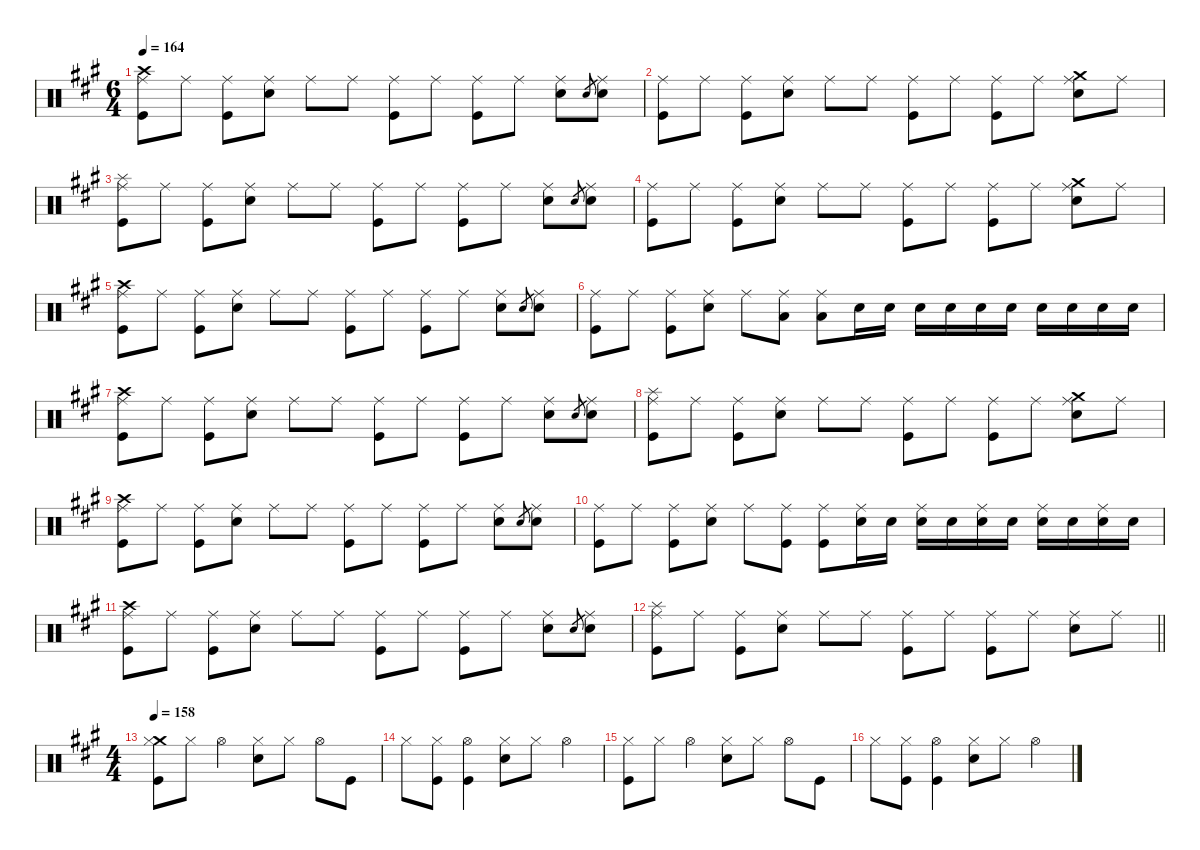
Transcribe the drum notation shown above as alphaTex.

\defaultSystemsLayout 4
\hideDynamics
\bracketExtendMode nobrackets
\singleTrackTrackNamePolicy hidden
\multiTrackTrackNamePolicy hidden
\firstSystemTrackNameMode fullname
\firstSystemTrackNameOrientation horizontal
\otherSystemsTrackNameOrientation horizontal
\track ("Drums" "drm.") {instrument percussion}
\staff {score}
\articulation defaults
\ts (6 4)
\tempo 164
\clef neutral
\ks f#minor
("Crash high (hit)"{acc forcenatural} "Ride (middle)"{acc forcenatural} "Kick (hit)"{acc forcenatural}).8{dy f beam Down} "Ride (middle)"{acc forcenatural}.8{beam Down} ("Ride (middle)"{acc forcenatural} "Kick (hit)"{acc forcenatural}).8{beam Down} ("Ride (middle)"{acc forcenatural} "Snare (hit) 2"{acc forcenatural}).8{beam Down} "Ride (middle)"{acc forcenatural}.8{beam Down} "Ride (middle)"{acc forcenatural}.8{beam Down} ("Ride (middle)"{acc forcenatural} "Kick (hit)"{acc forcenatural}).8{beam Down} "Ride (middle)"{acc forcenatural}.8{beam Down} ("Ride (middle)"{acc forcenatural} "Kick (hit)"{acc forcenatural}).8{beam Down} "Ride (middle)"{acc forcenatural}.8{beam Down} ("Ride (middle)"{acc forcenatural} "Snare (hit) 2"{acc forcenatural}).8{beam Down} "Electric Snare (hit)"{acc forcenatural}.8{gr dy pp beam Up} ("Ride (middle)"{acc forcenatural} "Snare (hit) 2"{acc forcenatural}).8{dy f beam Down} |
("Ride (middle)"{acc forcenatural} "Kick (hit)"{acc forcenatural}).8{beam Down} "Ride (middle)"{acc forcenatural}.8{beam Down} ("Ride (middle)"{acc forcenatural} "Kick (hit)"{acc forcenatural}).8{beam Down} ("Ride (middle)"{acc forcenatural} "Snare (hit) 2"{acc forcenatural}).8{beam Down} "Ride (middle)"{acc forcenatural}.8{beam Down} "Ride (middle)"{acc forcenatural}.8{beam Down} ("Ride (middle)"{acc forcenatural} "Kick (hit)"{acc forcenatural}).8{beam Down} "Ride (middle)"{acc forcenatural}.8{beam Down} ("Ride (middle)"{acc forcenatural} "Kick (hit)"{acc forcenatural}).8{beam Down} "Ride (middle)"{acc forcenatural}.8{beam Down} ("Crash medium (hit)"{acc forcenatural} "Ride (middle)"{acc forcenatural} "Snare (hit) 2"{acc forcenatural}).8{beam Down} "Ride (middle)"{acc forcenatural}.8{beam Down} |
("Splash (hit)"{acc forcenatural} "Ride (middle)"{acc forcenatural} "Kick (hit)"{acc forcenatural}).8{beam Down} "Ride (middle)"{acc forcenatural}.8{beam Down} ("Ride (middle)"{acc forcenatural} "Kick (hit)"{acc forcenatural}).8{beam Down} ("Ride (middle)"{acc forcenatural} "Snare (hit) 2"{acc forcenatural}).8{beam Down} "Ride (middle)"{acc forcenatural}.8{beam Down} "Ride (middle)"{acc forcenatural}.8{beam Down} ("Ride (middle)"{acc forcenatural} "Kick (hit)"{acc forcenatural}).8{beam Down} "Ride (middle)"{acc forcenatural}.8{beam Down} ("Ride (middle)"{acc forcenatural} "Kick (hit)"{acc forcenatural}).8{beam Down} "Ride (middle)"{acc forcenatural}.8{beam Down} ("Ride (middle)"{acc forcenatural} "Snare (hit) 2"{acc forcenatural}).8{beam Down} "Electric Snare (hit)"{acc forcenatural}.8{gr dy pp beam Up} ("Ride (middle)"{acc forcenatural} "Snare (hit) 2"{acc forcenatural}).8{dy f beam Down} |
("Ride (middle)"{acc forcenatural} "Kick (hit)"{acc forcenatural}).8{beam Down} "Ride (middle)"{acc forcenatural}.8{beam Down} ("Ride (middle)"{acc forcenatural} "Kick (hit)"{acc forcenatural}).8{beam Down} ("Ride (middle)"{acc forcenatural} "Snare (hit) 2"{acc forcenatural}).8{beam Down} "Ride (middle)"{acc forcenatural}.8{beam Down} "Ride (middle)"{acc forcenatural}.8{beam Down} ("Ride (middle)"{acc forcenatural} "Kick (hit)"{acc forcenatural}).8{beam Down} "Ride (middle)"{acc forcenatural}.8{beam Down} ("Ride (middle)"{acc forcenatural} "Kick (hit)"{acc forcenatural}).8{beam Down} "Ride (middle)"{acc forcenatural}.8{beam Down} ("Crash medium (hit)"{acc forcenatural} "Ride (middle)"{acc forcenatural} "Snare (hit) 2"{acc forcenatural}).8{beam Down} "Ride (middle)"{acc forcenatural}.8{beam Down} |
("Crash high (hit)"{acc forcenatural} "Ride (middle)"{acc forcenatural} "Kick (hit)"{acc forcenatural}).8{beam Down} "Ride (middle)"{acc forcenatural}.8{beam Down} ("Ride (middle)"{acc forcenatural} "Kick (hit)"{acc forcenatural}).8{beam Down} ("Ride (middle)"{acc forcenatural} "Snare (hit) 2"{acc forcenatural}).8{beam Down} "Ride (middle)"{acc forcenatural}.8{beam Down} "Ride (middle)"{acc forcenatural}.8{beam Down} ("Ride (middle)"{acc forcenatural} "Kick (hit)"{acc forcenatural}).8{beam Down} "Ride (middle)"{acc forcenatural}.8{beam Down} ("Ride (middle)"{acc forcenatural} "Kick (hit)"{acc forcenatural}).8{beam Down} "Ride (middle)"{acc forcenatural}.8{beam Down} ("Ride (middle)"{acc forcenatural} "Snare (hit) 2"{acc forcenatural}).8{beam Down} "Electric Snare (hit)"{acc forcenatural}.8{gr dy pp beam Up} ("Ride (middle)"{acc forcenatural} "Snare (hit) 2"{acc forcenatural}).8{dy f beam Down} |
("Ride (middle)"{acc forcenatural} "Kick (hit)"{acc forcenatural}).8{beam Down} "Ride (middle)"{acc forcenatural}.8{beam Down} ("Ride (middle)"{acc forcenatural} "Kick (hit)"{acc forcenatural}).8{beam Down} ("Ride (middle)"{acc forcenatural} "Snare (hit) 2"{acc forcenatural}).8{beam Down} "Ride (middle)"{acc forcenatural}.8{beam Down} ("Ride (middle)"{acc forcenatural} "Low Tom (hit)"{acc forcenatural}).8{beam Down} ("Ride (middle)"{acc forcenatural} "Low Tom (hit)"{acc forcenatural}).8{beam Down} "Snare (hit) 2"{acc forcenatural}.16{dy p beam Down} "Snare (hit) 2"{acc forcenatural}.16{beam Down} "Snare (hit) 2"{acc forcenatural}.16{dy mf beam Down} "Snare (hit) 2"{acc forcenatural}.16{dy p beam Down} "Snare (hit) 2"{acc forcenatural}.16{beam Down} "Snare (hit) 2"{acc forcenatural}.16{beam Down} "Snare (hit) 2"{acc forcenatural}.16{dy mf beam Down} "Snare (hit) 2"{acc forcenatural}.16{dy p beam Down} "Snare (hit) 2"{acc forcenatural}.16{beam Down} "Snare (hit) 2"{acc forcenatural}.16{beam Down} |
("Crash high (hit)"{acc forcenatural} "Ride (middle)"{acc forcenatural} "Kick (hit)"{acc forcenatural}).8{dy f beam Down} "Ride (middle)"{acc forcenatural}.8{beam Down} ("Ride (middle)"{acc forcenatural} "Kick (hit)"{acc forcenatural}).8{beam Down} ("Ride (middle)"{acc forcenatural} "Snare (hit) 2"{acc forcenatural}).8{beam Down} "Ride (middle)"{acc forcenatural}.8{beam Down} "Ride (middle)"{acc forcenatural}.8{beam Down} ("Ride (middle)"{acc forcenatural} "Kick (hit)"{acc forcenatural}).8{beam Down} "Ride (middle)"{acc forcenatural}.8{beam Down} ("Ride (middle)"{acc forcenatural} "Kick (hit)"{acc forcenatural}).8{beam Down} "Ride (middle)"{acc forcenatural}.8{beam Down} ("Ride (middle)"{acc forcenatural} "Snare (hit) 2"{acc forcenatural}).8{beam Down} "Electric Snare (hit)"{acc forcenatural}.8{gr dy pp beam Up} ("Ride (middle)"{acc forcenatural} "Snare (hit) 2"{acc forcenatural}).8{dy f beam Down} |
("Splash (hit)"{acc forcenatural} "Ride (middle)"{acc forcenatural} "Kick (hit)"{acc forcenatural}).8{beam Down} "Ride (middle)"{acc forcenatural}.8{beam Down} ("Ride (middle)"{acc forcenatural} "Kick (hit)"{acc forcenatural}).8{beam Down} ("Ride (middle)"{acc forcenatural} "Snare (hit) 2"{acc forcenatural}).8{beam Down} "Ride (middle)"{acc forcenatural}.8{beam Down} "Ride (middle)"{acc forcenatural}.8{beam Down} ("Ride (middle)"{acc forcenatural} "Kick (hit)"{acc forcenatural}).8{beam Down} "Ride (middle)"{acc forcenatural}.8{beam Down} ("Ride (middle)"{acc forcenatural} "Kick (hit)"{acc forcenatural}).8{beam Down} "Ride (middle)"{acc forcenatural}.8{beam Down} ("Crash medium (hit)"{acc forcenatural} "Ride (middle)"{acc forcenatural} "Snare (hit) 2"{acc forcenatural}).8{beam Down} "Ride (middle)"{acc forcenatural}.8{beam Down} |
("Crash high (hit)"{acc forcenatural} "Ride (middle)"{acc forcenatural} "Kick (hit)"{acc forcenatural}).8{beam Down} "Ride (middle)"{acc forcenatural}.8{beam Down} ("Ride (middle)"{acc forcenatural} "Kick (hit)"{acc forcenatural}).8{beam Down} ("Ride (middle)"{acc forcenatural} "Snare (hit) 2"{acc forcenatural}).8{beam Down} "Ride (middle)"{acc forcenatural}.8{beam Down} "Ride (middle)"{acc forcenatural}.8{beam Down} ("Ride (middle)"{acc forcenatural} "Kick (hit)"{acc forcenatural}).8{beam Down} "Ride (middle)"{acc forcenatural}.8{beam Down} ("Ride (middle)"{acc forcenatural} "Kick (hit)"{acc forcenatural}).8{beam Down} "Ride (middle)"{acc forcenatural}.8{beam Down} ("Ride (middle)"{acc forcenatural} "Snare (hit) 2"{acc forcenatural}).8{beam Down} "Electric Snare (hit)"{acc forcenatural}.8{gr dy pp beam Up} ("Ride (middle)"{acc forcenatural} "Snare (hit) 2"{acc forcenatural}).8{dy f beam Down} |
("Ride (middle)"{acc forcenatural} "Kick (hit)"{acc forcenatural}).8{beam Down} "Ride (middle)"{acc forcenatural}.8{beam Down} ("Ride (middle)"{acc forcenatural} "Kick (hit)"{acc forcenatural}).8{beam Down} ("Ride (middle)"{acc forcenatural} "Snare (hit) 2"{acc forcenatural}).8{beam Down} "Ride (middle)"{acc forcenatural}.8{beam Down} ("Ride (middle)"{acc forcenatural} "Kick (hit)"{acc forcenatural}).8{beam Down} ("Ride (middle)"{acc forcenatural} "Kick (hit)"{acc forcenatural}).8{beam Down} ("Ride (middle)"{acc forcenatural} "Snare (hit) 2"{acc forcenatural}).16{beam Down} "Snare (hit) 2"{acc forcenatural}.16{dy p beam Down} ("Ride (middle)"{acc forcenatural} "Snare (hit) 2"{acc forcenatural}).16{dy f beam Down} "Snare (hit) 2"{acc forcenatural}.16{dy p beam Down} ("Ride (middle)"{acc forcenatural} "Snare (hit) 2"{acc forcenatural}).16{dy f beam Down} "Snare (hit) 2"{acc forcenatural}.16{dy p beam Down} ("Ride (middle)"{acc forcenatural} "Snare (hit) 2"{acc forcenatural}).16{dy f beam Down} "Snare (hit) 2"{acc forcenatural}.16{dy p beam Down} ("Ride (middle)"{acc forcenatural} "Snare (hit) 2"{acc forcenatural}).16{dy f beam Down} "Snare (hit) 2"{acc forcenatural}.16{dy p beam Down} |
("Crash high (hit)"{acc forcenatural} "Ride (middle)"{acc forcenatural} "Kick (hit)"{acc forcenatural}).8{dy f beam Down} "Ride (middle)"{acc forcenatural}.8{beam Down} ("Ride (middle)"{acc forcenatural} "Kick (hit)"{acc forcenatural}).8{beam Down} ("Ride (middle)"{acc forcenatural} "Snare (hit) 2"{acc forcenatural}).8{beam Down} "Ride (middle)"{acc forcenatural}.8{beam Down} "Ride (middle)"{acc forcenatural}.8{beam Down} ("Ride (middle)"{acc forcenatural} "Kick (hit)"{acc forcenatural}).8{beam Down} "Ride (middle)"{acc forcenatural}.8{beam Down} ("Ride (middle)"{acc forcenatural} "Kick (hit)"{acc forcenatural}).8{beam Down} "Ride (middle)"{acc forcenatural}.8{beam Down} ("Ride (middle)"{acc forcenatural} "Snare (hit) 2"{acc forcenatural}).8{beam Down} "Electric Snare (hit)"{acc forcenatural}.8{gr dy pp beam Up} ("Ride (middle)"{acc forcenatural} "Snare (hit) 2"{acc forcenatural}).8{dy f beam Down} |
\barLineRight lightlight
("Splash (hit)"{acc forcenatural} "Ride (middle)"{acc forcenatural} "Kick (hit)"{acc forcenatural}).8{beam Down} "Ride (middle)"{acc forcenatural}.8{beam Down} ("Ride (middle)"{acc forcenatural} "Kick (hit)"{acc forcenatural}).8{beam Down} ("Ride (middle)"{acc forcenatural} "Snare (hit) 2"{acc forcenatural}).8{beam Down} "Ride (middle)"{acc forcenatural}.8{beam Down} "Ride (middle)"{acc forcenatural}.8{beam Down} ("Ride (middle)"{acc forcenatural} "Kick (hit)"{acc forcenatural}).8{beam Down} "Ride (middle)"{acc forcenatural}.8{beam Down} ("Ride (middle)"{acc forcenatural} "Kick (hit)"{acc forcenatural}).8{beam Down} "Ride (middle)"{acc forcenatural}.8{beam Down} ("Ride (middle)"{acc forcenatural} "Snare (hit) 2"{acc forcenatural}).8{beam Down} "Ride (middle)"{acc forcenatural}.8{beam Down} |
\ts (4 4)
\beaming (8 2 2 2 2)
\tempo 158
("Crash medium (hit)"{acc forcenatural} "Hi-Hat (closed)"{acc forcenatural} "Kick (hit)"{acc forcenatural}).8{beam Down} "Hi-Hat (closed)"{acc forcenatural}.8{dy mf beam Down} "Hi-Hat (open)"{acc forcenatural}.4{dy f beam Down} ("Hi-Hat (closed)"{acc forcenatural} "Snare (hit) 2"{acc forcenatural}).8{beam Down} "Hi-Hat (closed)"{acc forcenatural}.8{dy mf beam Down} "Hi-Hat (open)"{acc forcenatural}.8{dy f beam Down} "Kick (hit)"{acc forcenatural}.8{beam Down} |
"Hi-Hat (closed)"{acc forcenatural}.8{beam Down} ("Hi-Hat (closed)"{acc forcenatural} "Kick (hit)"{acc forcenatural}).8{dy mf beam Down} ("Hi-Hat (open)"{acc forcenatural} "Kick (hit)"{acc forcenatural}).4{dy f beam Down} ("Hi-Hat (closed)"{acc forcenatural} "Snare (hit) 2"{acc forcenatural}).8{beam Down} "Hi-Hat (closed)"{acc forcenatural}.8{dy mf beam Down} "Hi-Hat (open)"{acc forcenatural}.4{dy f beam Down} |
("Hi-Hat (closed)"{acc forcenatural} "Kick (hit)"{acc forcenatural}).8{beam Down} "Hi-Hat (closed)"{acc forcenatural}.8{dy mf beam Down} "Hi-Hat (open)"{acc forcenatural}.4{dy f beam Down} ("Hi-Hat (closed)"{acc forcenatural} "Snare (hit) 2"{acc forcenatural}).8{beam Down} "Hi-Hat (closed)"{acc forcenatural}.8{dy mf beam Down} "Hi-Hat (open)"{acc forcenatural}.8{dy f beam Down} "Kick (hit)"{acc forcenatural}.8{beam Down} |
"Hi-Hat (closed)"{acc forcenatural}.8{beam Down} ("Hi-Hat (closed)"{acc forcenatural} "Kick (hit)"{acc forcenatural}).8{dy mf beam Down} ("Hi-Hat (open)"{acc forcenatural} "Kick (hit)"{acc forcenatural}).4{dy f beam Down} ("Hi-Hat (closed)"{acc forcenatural} "Snare (hit) 2"{acc forcenatural}).8{beam Down} "Hi-Hat (closed)"{acc forcenatural}.8{dy mf beam Down} "Hi-Hat (open)"{acc forcenatural}.4{dy f beam Down}
